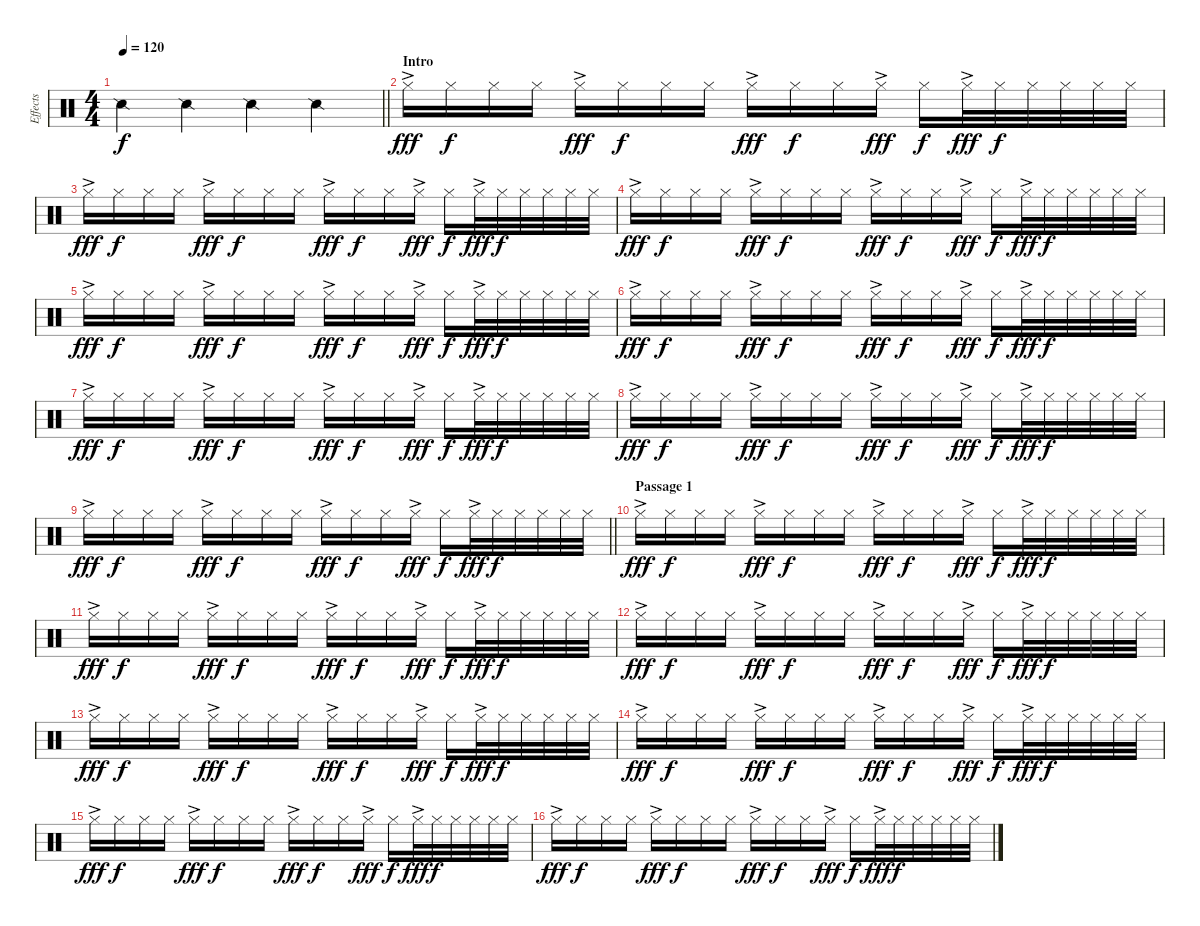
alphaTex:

\track ("Effects" "Effects") {instrument percussion}
\staff {score}
\articulation defaults
\ts (4 4)
\tempo 120
\clef neutral
\barLineRight lightlight
\ks c "Snare (side stick) 2".4{dy f volume 2} "Snare (side stick) 2".4 "Snare (side stick) 2".4 "Snare (side stick) 2".4
|
\section ("" "Intro")
"Hi-Hat (closed)"{ac}.16{dy fff volume 10} "Hi-Hat (closed)".16{dy f} "Hi-Hat (closed)".16 "Hi-Hat (closed)".16 "Hi-Hat (closed)"{ac}.16{dy fff} "Hi-Hat (closed)".16{dy f} "Hi-Hat (closed)".16 "Hi-Hat (closed)".16 "Hi-Hat (closed)"{ac}.16{dy fff} "Hi-Hat (closed)".16{dy f} "Hi-Hat (closed)".16 "Hi-Hat (closed)"{ac}.16{dy fff} "Hi-Hat (closed)".16{dy f} "Hi-Hat (closed)"{ac}.32{dy fff} "Hi-Hat (closed)".32{dy f} "Hi-Hat (closed)".32 "Hi-Hat (closed)".32 "Hi-Hat (closed)".32 "Hi-Hat (closed)".32 |
"Hi-Hat (closed)"{ac}.16{dy fff} "Hi-Hat (closed)".16{dy f} "Hi-Hat (closed)".16 "Hi-Hat (closed)".16 "Hi-Hat (closed)"{ac}.16{dy fff} "Hi-Hat (closed)".16{dy f} "Hi-Hat (closed)".16 "Hi-Hat (closed)".16 "Hi-Hat (closed)"{ac}.16{dy fff} "Hi-Hat (closed)".16{dy f} "Hi-Hat (closed)".16 "Hi-Hat (closed)"{ac}.16{dy fff} "Hi-Hat (closed)".16{dy f} "Hi-Hat (closed)"{ac}.32{dy fff} "Hi-Hat (closed)".32{dy f} "Hi-Hat (closed)".32 "Hi-Hat (closed)".32 "Hi-Hat (closed)".32 "Hi-Hat (closed)".32 |
"Hi-Hat (closed)"{ac}.16{dy fff} "Hi-Hat (closed)".16{dy f} "Hi-Hat (closed)".16 "Hi-Hat (closed)".16 "Hi-Hat (closed)"{ac}.16{dy fff} "Hi-Hat (closed)".16{dy f} "Hi-Hat (closed)".16 "Hi-Hat (closed)".16 "Hi-Hat (closed)"{ac}.16{dy fff} "Hi-Hat (closed)".16{dy f} "Hi-Hat (closed)".16 "Hi-Hat (closed)"{ac}.16{dy fff} "Hi-Hat (closed)".16{dy f} "Hi-Hat (closed)"{ac}.32{dy fff} "Hi-Hat (closed)".32{dy f} "Hi-Hat (closed)".32 "Hi-Hat (closed)".32 "Hi-Hat (closed)".32 "Hi-Hat (closed)".32 |
"Hi-Hat (closed)"{ac}.16{dy fff} "Hi-Hat (closed)".16{dy f} "Hi-Hat (closed)".16 "Hi-Hat (closed)".16 "Hi-Hat (closed)"{ac}.16{dy fff} "Hi-Hat (closed)".16{dy f} "Hi-Hat (closed)".16 "Hi-Hat (closed)".16 "Hi-Hat (closed)"{ac}.16{dy fff} "Hi-Hat (closed)".16{dy f} "Hi-Hat (closed)".16 "Hi-Hat (closed)"{ac}.16{dy fff} "Hi-Hat (closed)".16{dy f} "Hi-Hat (closed)"{ac}.32{dy fff} "Hi-Hat (closed)".32{dy f} "Hi-Hat (closed)".32 "Hi-Hat (closed)".32 "Hi-Hat (closed)".32 "Hi-Hat (closed)".32 |
"Hi-Hat (closed)"{ac}.16{dy fff} "Hi-Hat (closed)".16{dy f} "Hi-Hat (closed)".16 "Hi-Hat (closed)".16 "Hi-Hat (closed)"{ac}.16{dy fff} "Hi-Hat (closed)".16{dy f} "Hi-Hat (closed)".16 "Hi-Hat (closed)".16 "Hi-Hat (closed)"{ac}.16{dy fff} "Hi-Hat (closed)".16{dy f} "Hi-Hat (closed)".16 "Hi-Hat (closed)"{ac}.16{dy fff} "Hi-Hat (closed)".16{dy f} "Hi-Hat (closed)"{ac}.32{dy fff} "Hi-Hat (closed)".32{dy f} "Hi-Hat (closed)".32 "Hi-Hat (closed)".32 "Hi-Hat (closed)".32 "Hi-Hat (closed)".32 |
"Hi-Hat (closed)"{ac}.16{dy fff} "Hi-Hat (closed)".16{dy f} "Hi-Hat (closed)".16 "Hi-Hat (closed)".16 "Hi-Hat (closed)"{ac}.16{dy fff} "Hi-Hat (closed)".16{dy f} "Hi-Hat (closed)".16 "Hi-Hat (closed)".16 "Hi-Hat (closed)"{ac}.16{dy fff} "Hi-Hat (closed)".16{dy f} "Hi-Hat (closed)".16 "Hi-Hat (closed)"{ac}.16{dy fff} "Hi-Hat (closed)".16{dy f} "Hi-Hat (closed)"{ac}.32{dy fff} "Hi-Hat (closed)".32{dy f} "Hi-Hat (closed)".32 "Hi-Hat (closed)".32 "Hi-Hat (closed)".32 "Hi-Hat (closed)".32 |
"Hi-Hat (closed)"{ac}.16{dy fff} "Hi-Hat (closed)".16{dy f} "Hi-Hat (closed)".16 "Hi-Hat (closed)".16 "Hi-Hat (closed)"{ac}.16{dy fff} "Hi-Hat (closed)".16{dy f} "Hi-Hat (closed)".16 "Hi-Hat (closed)".16 "Hi-Hat (closed)"{ac}.16{dy fff} "Hi-Hat (closed)".16{dy f} "Hi-Hat (closed)".16 "Hi-Hat (closed)"{ac}.16{dy fff} "Hi-Hat (closed)".16{dy f} "Hi-Hat (closed)"{ac}.32{dy fff} "Hi-Hat (closed)".32{dy f} "Hi-Hat (closed)".32 "Hi-Hat (closed)".32 "Hi-Hat (closed)".32 "Hi-Hat (closed)".32 |
\barLineRight lightlight "Hi-Hat (closed)"{ac}.16{dy fff} "Hi-Hat (closed)".16{dy f} "Hi-Hat (closed)".16 "Hi-Hat (closed)".16 "Hi-Hat (closed)"{ac}.16{dy fff} "Hi-Hat (closed)".16{dy f} "Hi-Hat (closed)".16 "Hi-Hat (closed)".16 "Hi-Hat (closed)"{ac}.16{dy fff} "Hi-Hat (closed)".16{dy f} "Hi-Hat (closed)".16 "Hi-Hat (closed)"{ac}.16{dy fff} "Hi-Hat (closed)".16{dy f} "Hi-Hat (closed)"{ac}.32{dy fff} "Hi-Hat (closed)".32{dy f} "Hi-Hat (closed)".32 "Hi-Hat (closed)".32 "Hi-Hat (closed)".32 "Hi-Hat (closed)".32
|
\section ("" "Passage 1")
"Hi-Hat (closed)"{ac}.16{dy fff} "Hi-Hat (closed)".16{dy f} "Hi-Hat (closed)".16 "Hi-Hat (closed)".16 "Hi-Hat (closed)"{ac}.16{dy fff} "Hi-Hat (closed)".16{dy f} "Hi-Hat (closed)".16 "Hi-Hat (closed)".16 "Hi-Hat (closed)"{ac}.16{dy fff} "Hi-Hat (closed)".16{dy f} "Hi-Hat (closed)".16 "Hi-Hat (closed)"{ac}.16{dy fff} "Hi-Hat (closed)".16{dy f} "Hi-Hat (closed)"{ac}.32{dy fff} "Hi-Hat (closed)".32{dy f} "Hi-Hat (closed)".32 "Hi-Hat (closed)".32 "Hi-Hat (closed)".32 "Hi-Hat (closed)".32 |
"Hi-Hat (closed)"{ac}.16{dy fff} "Hi-Hat (closed)".16{dy f} "Hi-Hat (closed)".16 "Hi-Hat (closed)".16 "Hi-Hat (closed)"{ac}.16{dy fff} "Hi-Hat (closed)".16{dy f} "Hi-Hat (closed)".16 "Hi-Hat (closed)".16 "Hi-Hat (closed)"{ac}.16{dy fff} "Hi-Hat (closed)".16{dy f} "Hi-Hat (closed)".16 "Hi-Hat (closed)"{ac}.16{dy fff} "Hi-Hat (closed)".16{dy f} "Hi-Hat (closed)"{ac}.32{dy fff} "Hi-Hat (closed)".32{dy f} "Hi-Hat (closed)".32 "Hi-Hat (closed)".32 "Hi-Hat (closed)".32 "Hi-Hat (closed)".32 |
"Hi-Hat (closed)"{ac}.16{dy fff} "Hi-Hat (closed)".16{dy f} "Hi-Hat (closed)".16 "Hi-Hat (closed)".16 "Hi-Hat (closed)"{ac}.16{dy fff} "Hi-Hat (closed)".16{dy f} "Hi-Hat (closed)".16 "Hi-Hat (closed)".16 "Hi-Hat (closed)"{ac}.16{dy fff} "Hi-Hat (closed)".16{dy f} "Hi-Hat (closed)".16 "Hi-Hat (closed)"{ac}.16{dy fff} "Hi-Hat (closed)".16{dy f} "Hi-Hat (closed)"{ac}.32{dy fff} "Hi-Hat (closed)".32{dy f} "Hi-Hat (closed)".32 "Hi-Hat (closed)".32 "Hi-Hat (closed)".32 "Hi-Hat (closed)".32 |
"Hi-Hat (closed)"{ac}.16{dy fff} "Hi-Hat (closed)".16{dy f} "Hi-Hat (closed)".16 "Hi-Hat (closed)".16 "Hi-Hat (closed)"{ac}.16{dy fff} "Hi-Hat (closed)".16{dy f} "Hi-Hat (closed)".16 "Hi-Hat (closed)".16 "Hi-Hat (closed)"{ac}.16{dy fff} "Hi-Hat (closed)".16{dy f} "Hi-Hat (closed)".16 "Hi-Hat (closed)"{ac}.16{dy fff} "Hi-Hat (closed)".16{dy f} "Hi-Hat (closed)"{ac}.32{dy fff} "Hi-Hat (closed)".32{dy f} "Hi-Hat (closed)".32 "Hi-Hat (closed)".32 "Hi-Hat (closed)".32 "Hi-Hat (closed)".32 |
"Hi-Hat (closed)"{ac}.16{dy fff} "Hi-Hat (closed)".16{dy f} "Hi-Hat (closed)".16 "Hi-Hat (closed)".16 "Hi-Hat (closed)"{ac}.16{dy fff} "Hi-Hat (closed)".16{dy f} "Hi-Hat (closed)".16 "Hi-Hat (closed)".16 "Hi-Hat (closed)"{ac}.16{dy fff} "Hi-Hat (closed)".16{dy f} "Hi-Hat (closed)".16 "Hi-Hat (closed)"{ac}.16{dy fff} "Hi-Hat (closed)".16{dy f} "Hi-Hat (closed)"{ac}.32{dy fff} "Hi-Hat (closed)".32{dy f} "Hi-Hat (closed)".32 "Hi-Hat (closed)".32 "Hi-Hat (closed)".32 "Hi-Hat (closed)".32 |
"Hi-Hat (closed)"{ac}.16{dy fff} "Hi-Hat (closed)".16{dy f} "Hi-Hat (closed)".16 "Hi-Hat (closed)".16 "Hi-Hat (closed)"{ac}.16{dy fff} "Hi-Hat (closed)".16{dy f} "Hi-Hat (closed)".16 "Hi-Hat (closed)".16 "Hi-Hat (closed)"{ac}.16{dy fff} "Hi-Hat (closed)".16{dy f} "Hi-Hat (closed)".16 "Hi-Hat (closed)"{ac}.16{dy fff} "Hi-Hat (closed)".16{dy f} "Hi-Hat (closed)"{ac}.32{dy fff} "Hi-Hat (closed)".32{dy f} "Hi-Hat (closed)".32 "Hi-Hat (closed)".32 "Hi-Hat (closed)".32 "Hi-Hat (closed)".32 |
"Hi-Hat (closed)"{ac}.16{dy fff} "Hi-Hat (closed)".16{dy f} "Hi-Hat (closed)".16 "Hi-Hat (closed)".16 "Hi-Hat (closed)"{ac}.16{dy fff} "Hi-Hat (closed)".16{dy f} "Hi-Hat (closed)".16 "Hi-Hat (closed)".16 "Hi-Hat (closed)"{ac}.16{dy fff} "Hi-Hat (closed)".16{dy f} "Hi-Hat (closed)".16 "Hi-Hat (closed)"{ac}.16{dy fff} "Hi-Hat (closed)".16{dy f} "Hi-Hat (closed)"{ac}.32{dy fff} "Hi-Hat (closed)".32{dy f} "Hi-Hat (closed)".32 "Hi-Hat (closed)".32 "Hi-Hat (closed)".32 "Hi-Hat (closed)".32
